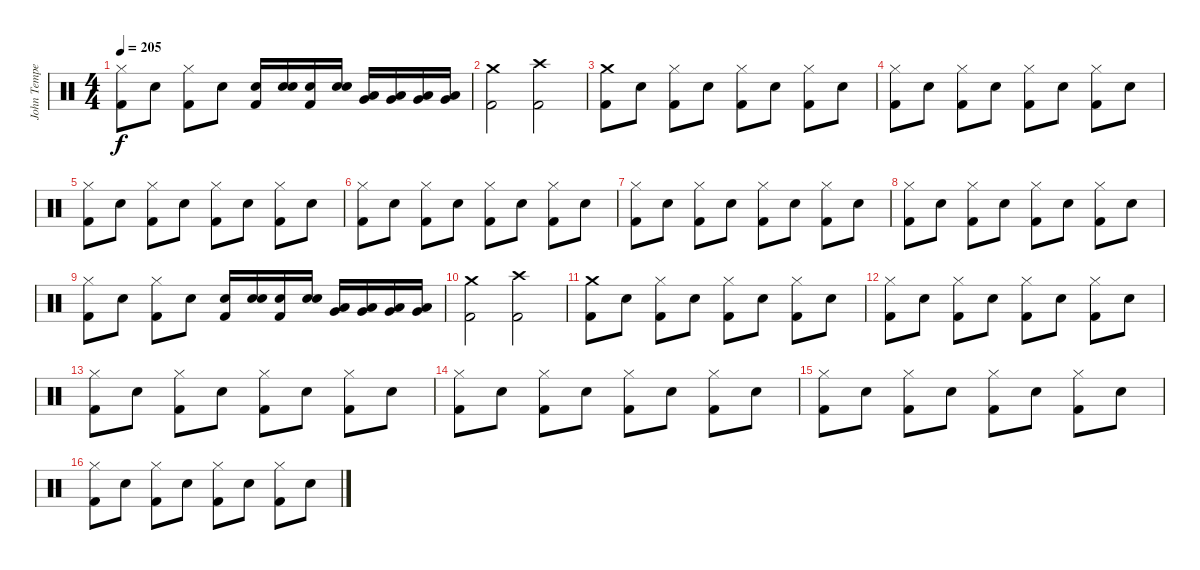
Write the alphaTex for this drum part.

\track ("John Tempesta" "John Tempe") {instrument percussion}
\staff {score}
\articulation defaults
\ts (4 4)
\tempo 205
\clef neutral
\ks c
("Kick (hit) 2" "Hi-Hat (closed)").8{dy f} "Snare (hit) 2".8 ("Kick (hit) 2" "Hi-Hat (closed)").8 "Snare (hit) 2".8 ("Kick (hit) 2" "Snare (hit) 2").16 ("Snare (hit) 2" "Snare (hit) 2").16 ("Kick (hit) 2" "Snare (hit) 2").16 ("Snare (hit) 2" "Snare (hit) 2").16 ("Low Floor Tom (hit)" "Very Low Tom (hit)").16 ("Low Floor Tom (hit)" "Very Low Tom (hit)").16 ("Low Floor Tom (hit)" "Very Low Tom (hit)").16 ("Low Floor Tom (hit)" "Very Low Tom (hit)").16 |
("Kick (hit) 2" "Crash medium (hit)").2 ("Kick (hit) 2" "Crash high (hit)").2 |
("Kick (hit) 2" "Crash medium (hit)").8 "Snare (hit) 2".8 ("Kick (hit) 2" "Hi-Hat (closed)").8 "Snare (hit) 2".8 ("Kick (hit) 2" "Hi-Hat (closed)").8 "Snare (hit) 2".8 ("Kick (hit) 2" "Hi-Hat (closed)").8 "Snare (hit) 2".8 |
("Kick (hit) 2" "Hi-Hat (closed)").8 "Snare (hit) 2".8 ("Kick (hit) 2" "Hi-Hat (closed)").8 "Snare (hit) 2".8 ("Kick (hit) 2" "Hi-Hat (closed)").8 "Snare (hit) 2".8 ("Kick (hit) 2" "Hi-Hat (closed)").8 "Snare (hit) 2".8 |
("Kick (hit) 2" "Hi-Hat (closed)").8 "Snare (hit) 2".8 ("Kick (hit) 2" "Hi-Hat (closed)").8 "Snare (hit) 2".8 ("Kick (hit) 2" "Hi-Hat (closed)").8 "Snare (hit) 2".8 ("Kick (hit) 2" "Hi-Hat (closed)").8 "Snare (hit) 2".8 |
("Kick (hit) 2" "Hi-Hat (closed)").8 "Snare (hit) 2".8 ("Kick (hit) 2" "Hi-Hat (closed)").8 "Snare (hit) 2".8 ("Kick (hit) 2" "Hi-Hat (closed)").8 "Snare (hit) 2".8 ("Kick (hit) 2" "Hi-Hat (closed)").8 "Snare (hit) 2".8 |
("Kick (hit) 2" "Hi-Hat (closed)").8 "Snare (hit) 2".8 ("Kick (hit) 2" "Hi-Hat (closed)").8 "Snare (hit) 2".8 ("Kick (hit) 2" "Hi-Hat (closed)").8 "Snare (hit) 2".8 ("Kick (hit) 2" "Hi-Hat (closed)").8 "Snare (hit) 2".8 |
("Kick (hit) 2" "Hi-Hat (closed)").8 "Snare (hit) 2".8 ("Kick (hit) 2" "Hi-Hat (closed)").8 "Snare (hit) 2".8 ("Kick (hit) 2" "Hi-Hat (closed)").8 "Snare (hit) 2".8 ("Kick (hit) 2" "Hi-Hat (closed)").8 "Snare (hit) 2".8 |
("Kick (hit) 2" "Hi-Hat (closed)").8 "Snare (hit) 2".8 ("Kick (hit) 2" "Hi-Hat (closed)").8 "Snare (hit) 2".8 ("Kick (hit) 2" "Snare (hit) 2").16 ("Snare (hit) 2" "Snare (hit) 2").16 ("Kick (hit) 2" "Snare (hit) 2").16 ("Snare (hit) 2" "Snare (hit) 2").16 ("Low Floor Tom (hit)" "Very Low Tom (hit)").16 ("Low Floor Tom (hit)" "Very Low Tom (hit)").16 ("Low Floor Tom (hit)" "Very Low Tom (hit)").16 ("Low Floor Tom (hit)" "Very Low Tom (hit)").16 |
("Kick (hit) 2" "Crash medium (hit)").2 ("Kick (hit) 2" "Crash high (hit)").2 |
("Kick (hit) 2" "Crash medium (hit)").8 "Snare (hit) 2".8 ("Kick (hit) 2" "Hi-Hat (closed)").8 "Snare (hit) 2".8 ("Kick (hit) 2" "Hi-Hat (closed)").8 "Snare (hit) 2".8 ("Kick (hit) 2" "Hi-Hat (closed)").8 "Snare (hit) 2".8 |
("Kick (hit) 2" "Hi-Hat (closed)").8 "Snare (hit) 2".8 ("Kick (hit) 2" "Hi-Hat (closed)").8 "Snare (hit) 2".8 ("Kick (hit) 2" "Hi-Hat (closed)").8 "Snare (hit) 2".8 ("Kick (hit) 2" "Hi-Hat (closed)").8 "Snare (hit) 2".8 |
("Kick (hit) 2" "Hi-Hat (closed)").8 "Snare (hit) 2".8 ("Kick (hit) 2" "Hi-Hat (closed)").8 "Snare (hit) 2".8 ("Kick (hit) 2" "Hi-Hat (closed)").8 "Snare (hit) 2".8 ("Kick (hit) 2" "Hi-Hat (closed)").8 "Snare (hit) 2".8 |
("Kick (hit) 2" "Hi-Hat (closed)").8 "Snare (hit) 2".8 ("Kick (hit) 2" "Hi-Hat (closed)").8 "Snare (hit) 2".8 ("Kick (hit) 2" "Hi-Hat (closed)").8 "Snare (hit) 2".8 ("Kick (hit) 2" "Hi-Hat (closed)").8 "Snare (hit) 2".8 |
("Kick (hit) 2" "Hi-Hat (closed)").8 "Snare (hit) 2".8 ("Kick (hit) 2" "Hi-Hat (closed)").8 "Snare (hit) 2".8 ("Kick (hit) 2" "Hi-Hat (closed)").8 "Snare (hit) 2".8 ("Kick (hit) 2" "Hi-Hat (closed)").8 "Snare (hit) 2".8 |
("Kick (hit) 2" "Hi-Hat (closed)").8 "Snare (hit) 2".8 ("Kick (hit) 2" "Hi-Hat (closed)").8 "Snare (hit) 2".8 ("Kick (hit) 2" "Hi-Hat (closed)").8 "Snare (hit) 2".8 ("Kick (hit) 2" "Hi-Hat (closed)").8 "Snare (hit) 2".8
